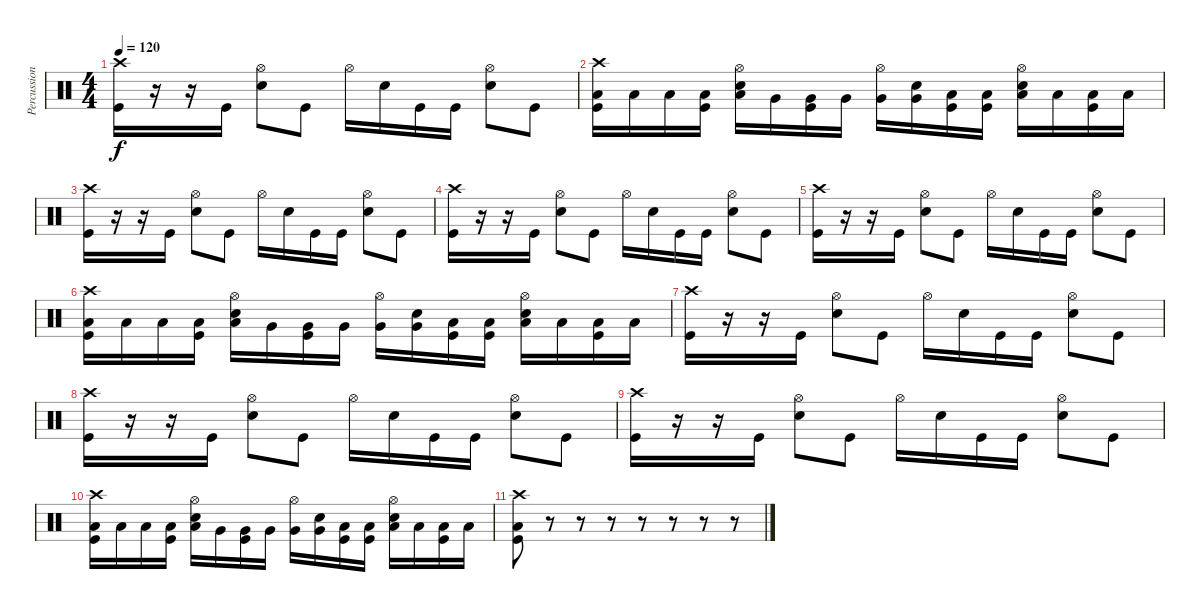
\track ("Percussion" "Percussion") {instrument percussion}
\staff {score}
\articulation defaults
\ts (4 4)
\tempo 120
\clef neutral
\ks c
("Crash high (hit)" "Kick (hit)").16{dy f} r.16 r.16 "Kick (hit)".16 ("Hi-Hat (open)" "Electric Snare (hit)").8 "Kick (hit)".8 "Hi-Hat (open)".16 "Electric Snare (hit)".16 "Kick (hit)".16 "Kick (hit)".16 ("Hi-Hat (open)" "Electric Snare (hit)").8 "Kick (hit)".8 |
("Crash high (hit)" "Low Tom (hit)" "Kick (hit)").16 "Low Tom (hit)".16 "Low Tom (hit)".16 ("Low Tom (hit)" "Kick (hit)").16 ("Hi-Hat (open)" "Low Tom (hit)" "Electric Snare (hit)").16 "Very Low Tom (hit)".16 ("Very Low Tom (hit)" "Kick (hit)").16 "Very Low Tom (hit)".16 ("Hi-Hat (open)" "Very Low Tom (hit)").16 ("Very Low Tom (hit)" "Electric Snare (hit)").16 ("Low Floor Tom (hit)" "Kick (hit)").16 ("Low Floor Tom (hit)" "Kick (hit)").16 ("Hi-Hat (open)" "Low Floor Tom (hit)" "Electric Snare (hit)").16 "Low Floor Tom (hit)".16 ("Low Floor Tom (hit)" "Kick (hit)").16 "Low Floor Tom (hit)".16 |
("Crash high (hit)" "Kick (hit)").16 r.16 r.16 "Kick (hit)".16 ("Hi-Hat (open)" "Electric Snare (hit)").8 "Kick (hit)".8 "Hi-Hat (open)".16 "Electric Snare (hit)".16 "Kick (hit)".16 "Kick (hit)".16 ("Hi-Hat (open)" "Electric Snare (hit)").8 "Kick (hit)".8 |
("Crash high (hit)" "Kick (hit)").16 r.16 r.16 "Kick (hit)".16 ("Hi-Hat (open)" "Electric Snare (hit)").8 "Kick (hit)".8 "Hi-Hat (open)".16 "Electric Snare (hit)".16 "Kick (hit)".16 "Kick (hit)".16 ("Hi-Hat (open)" "Electric Snare (hit)").8 "Kick (hit)".8 |
("Crash high (hit)" "Kick (hit)").16 r.16 r.16 "Kick (hit)".16 ("Hi-Hat (open)" "Electric Snare (hit)").8 "Kick (hit)".8 "Hi-Hat (open)".16 "Electric Snare (hit)".16 "Kick (hit)".16 "Kick (hit)".16 ("Hi-Hat (open)" "Electric Snare (hit)").8 "Kick (hit)".8 |
("Crash high (hit)" "Low Tom (hit)" "Kick (hit)").16 "Low Tom (hit)".16 "Low Tom (hit)".16 ("Low Tom (hit)" "Kick (hit)").16 ("Hi-Hat (open)" "Low Tom (hit)" "Electric Snare (hit)").16 "Very Low Tom (hit)".16 ("Very Low Tom (hit)" "Kick (hit)").16 "Very Low Tom (hit)".16 ("Hi-Hat (open)" "Very Low Tom (hit)").16 ("Very Low Tom (hit)" "Electric Snare (hit)").16 ("Low Floor Tom (hit)" "Kick (hit)").16 ("Low Floor Tom (hit)" "Kick (hit)").16 ("Hi-Hat (open)" "Low Floor Tom (hit)" "Electric Snare (hit)").16 "Low Floor Tom (hit)".16 ("Low Floor Tom (hit)" "Kick (hit)").16 "Low Floor Tom (hit)".16 |
("Crash high (hit)" "Kick (hit)").16 r.16 r.16 "Kick (hit)".16 ("Hi-Hat (open)" "Electric Snare (hit)").8 "Kick (hit)".8 "Hi-Hat (open)".16 "Electric Snare (hit)".16 "Kick (hit)".16 "Kick (hit)".16 ("Hi-Hat (open)" "Electric Snare (hit)").8 "Kick (hit)".8 |
("Crash high (hit)" "Kick (hit)").16 r.16 r.16 "Kick (hit)".16 ("Hi-Hat (open)" "Electric Snare (hit)").8 "Kick (hit)".8 "Hi-Hat (open)".16 "Electric Snare (hit)".16 "Kick (hit)".16 "Kick (hit)".16 ("Hi-Hat (open)" "Electric Snare (hit)").8 "Kick (hit)".8 |
("Crash high (hit)" "Kick (hit)").16 r.16 r.16 "Kick (hit)".16 ("Hi-Hat (open)" "Electric Snare (hit)").8 "Kick (hit)".8 "Hi-Hat (open)".16 "Electric Snare (hit)".16 "Kick (hit)".16 "Kick (hit)".16 ("Hi-Hat (open)" "Electric Snare (hit)").8 "Kick (hit)".8 |
("Crash high (hit)" "Low Tom (hit)" "Kick (hit)").16 "Low Tom (hit)".16 "Low Tom (hit)".16 ("Low Tom (hit)" "Kick (hit)").16 ("Hi-Hat (open)" "Low Tom (hit)" "Electric Snare (hit)").16 "Very Low Tom (hit)".16 ("Very Low Tom (hit)" "Kick (hit)").16 "Very Low Tom (hit)".16 ("Hi-Hat (open)" "Very Low Tom (hit)").16 ("Very Low Tom (hit)" "Electric Snare (hit)").16 ("Low Floor Tom (hit)" "Kick (hit)").16 ("Low Floor Tom (hit)" "Kick (hit)").16 ("Hi-Hat (open)" "Low Floor Tom (hit)" "Electric Snare (hit)").16 "Low Floor Tom (hit)".16 ("Low Floor Tom (hit)" "Kick (hit)").16 "Low Floor Tom (hit)".16 |
("Low Floor Tom (hit)" "Crash high (hit)" "Kick (hit)").8 r.8 r.8 r.8 r.8 r.8 r.8 r.8
